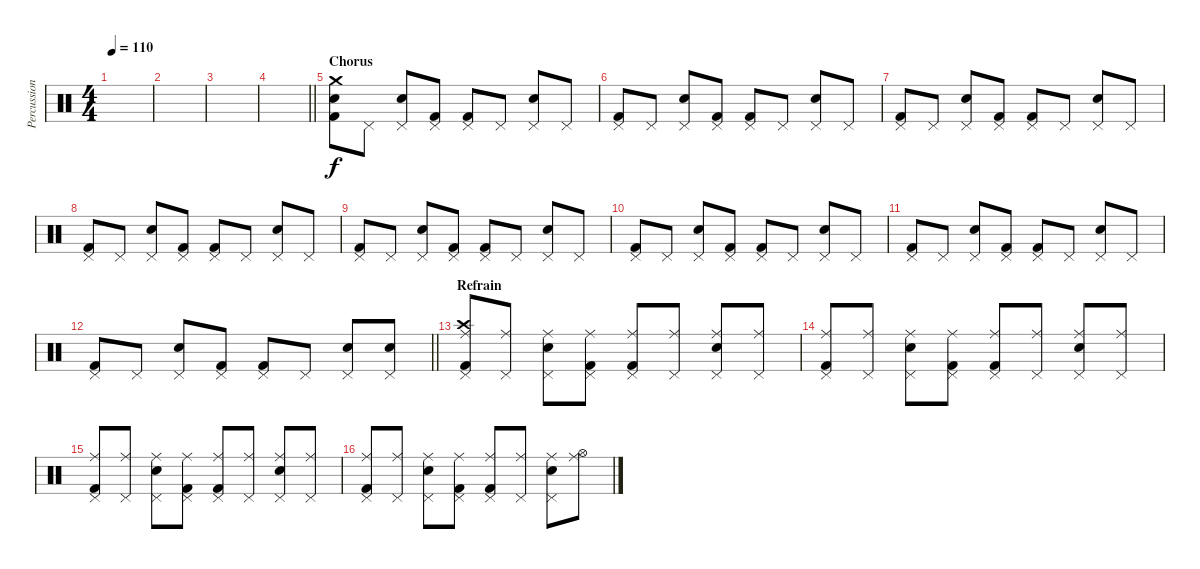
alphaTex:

\track ("Percussions" "Percussion") {instrument percussion}
\staff {score}
\articulation defaults
\ts (4 4)
\tempo 110
\clef neutral
\ks c
|
|
|
\barLineRight lightlight
|
\section ("" "Chorus")
("Crash medium (hit)" "Kick (hit) 2" "Electric Snare (hit)").8 "Pedal Hi-Hat (hit)".8 ("Pedal Hi-Hat (hit)" "Electric Snare (hit)").8 ("Pedal Hi-Hat (hit)" "Kick (hit) 2").8 ("Pedal Hi-Hat (hit)" "Kick (hit) 2").8 "Pedal Hi-Hat (hit)".8 ("Pedal Hi-Hat (hit)" "Electric Snare (hit)").8 "Pedal Hi-Hat (hit)".8 |
("Pedal Hi-Hat (hit)" "Kick (hit) 2").8 "Pedal Hi-Hat (hit)".8 ("Pedal Hi-Hat (hit)" "Electric Snare (hit)").8 ("Pedal Hi-Hat (hit)" "Kick (hit) 2").8 ("Pedal Hi-Hat (hit)" "Kick (hit) 2").8 "Pedal Hi-Hat (hit)".8 ("Pedal Hi-Hat (hit)" "Electric Snare (hit)").8 "Pedal Hi-Hat (hit)".8 |
("Pedal Hi-Hat (hit)" "Kick (hit) 2").8 "Pedal Hi-Hat (hit)".8 ("Pedal Hi-Hat (hit)" "Electric Snare (hit)").8 ("Pedal Hi-Hat (hit)" "Kick (hit) 2").8 ("Pedal Hi-Hat (hit)" "Kick (hit) 2").8 "Pedal Hi-Hat (hit)".8 ("Pedal Hi-Hat (hit)" "Electric Snare (hit)").8 "Pedal Hi-Hat (hit)".8 |
("Pedal Hi-Hat (hit)" "Kick (hit) 2").8 "Pedal Hi-Hat (hit)".8 ("Pedal Hi-Hat (hit)" "Electric Snare (hit)").8 ("Pedal Hi-Hat (hit)" "Kick (hit) 2").8 ("Pedal Hi-Hat (hit)" "Kick (hit) 2").8 "Pedal Hi-Hat (hit)".8 ("Pedal Hi-Hat (hit)" "Electric Snare (hit)").8 "Pedal Hi-Hat (hit)".8 |
("Pedal Hi-Hat (hit)" "Kick (hit) 2").8 "Pedal Hi-Hat (hit)".8 ("Pedal Hi-Hat (hit)" "Electric Snare (hit)").8 ("Pedal Hi-Hat (hit)" "Kick (hit) 2").8 ("Pedal Hi-Hat (hit)" "Kick (hit) 2").8 "Pedal Hi-Hat (hit)".8 ("Pedal Hi-Hat (hit)" "Electric Snare (hit)").8 "Pedal Hi-Hat (hit)".8 |
("Pedal Hi-Hat (hit)" "Kick (hit) 2").8 "Pedal Hi-Hat (hit)".8 ("Pedal Hi-Hat (hit)" "Electric Snare (hit)").8 ("Pedal Hi-Hat (hit)" "Kick (hit) 2").8 ("Pedal Hi-Hat (hit)" "Kick (hit) 2").8 "Pedal Hi-Hat (hit)".8 ("Pedal Hi-Hat (hit)" "Electric Snare (hit)").8 "Pedal Hi-Hat (hit)".8 |
("Pedal Hi-Hat (hit)" "Kick (hit) 2").8 "Pedal Hi-Hat (hit)".8 ("Pedal Hi-Hat (hit)" "Electric Snare (hit)").8 ("Pedal Hi-Hat (hit)" "Kick (hit) 2").8 ("Pedal Hi-Hat (hit)" "Kick (hit) 2").8 "Pedal Hi-Hat (hit)".8 ("Pedal Hi-Hat (hit)" "Electric Snare (hit)").8 "Pedal Hi-Hat (hit)".8 |
\barLineRight lightlight
("Pedal Hi-Hat (hit)" "Kick (hit) 2").8 "Pedal Hi-Hat (hit)".8 ("Pedal Hi-Hat (hit)" "Electric Snare (hit)").8 ("Pedal Hi-Hat (hit)" "Kick (hit) 2").8 ("Pedal Hi-Hat (hit)" "Kick (hit) 2").8 "Pedal Hi-Hat (hit)".8 ("Pedal Hi-Hat (hit)" "Electric Snare (hit)").8 ("Pedal Hi-Hat (hit)" "Electric Snare (hit)").8 |
\section ("" "Refrain")
("Crash high (hit)" "Pedal Hi-Hat (hit)" "Kick (hit) 2" "Ride (middle)").8 ("Pedal Hi-Hat (hit)" "Ride (middle)").8 ("Pedal Hi-Hat (hit)" "Electric Snare (hit)" "Ride (middle)").8 ("Pedal Hi-Hat (hit)" "Kick (hit) 2" "Ride (middle)").8 ("Pedal Hi-Hat (hit)" "Kick (hit) 2" "Ride (middle)").8 ("Pedal Hi-Hat (hit)" "Ride (middle)").8 ("Pedal Hi-Hat (hit)" "Electric Snare (hit)" "Ride (middle)").8 ("Pedal Hi-Hat (hit)" "Ride (middle)").8 |
("Pedal Hi-Hat (hit)" "Kick (hit) 2" "Ride (middle)").8 ("Pedal Hi-Hat (hit)" "Ride (middle)").8 ("Pedal Hi-Hat (hit)" "Electric Snare (hit)" "Ride (middle)").8 ("Pedal Hi-Hat (hit)" "Kick (hit) 2" "Ride (middle)").8 ("Pedal Hi-Hat (hit)" "Kick (hit) 2" "Ride (middle)").8 ("Pedal Hi-Hat (hit)" "Ride (middle)").8 ("Pedal Hi-Hat (hit)" "Electric Snare (hit)" "Ride (middle)").8 ("Pedal Hi-Hat (hit)" "Ride (middle)").8 |
("Pedal Hi-Hat (hit)" "Kick (hit) 2" "Ride (middle)").8 ("Pedal Hi-Hat (hit)" "Ride (middle)").8 ("Pedal Hi-Hat (hit)" "Electric Snare (hit)" "Ride (middle)").8 ("Pedal Hi-Hat (hit)" "Kick (hit) 2" "Ride (middle)").8 ("Pedal Hi-Hat (hit)" "Kick (hit) 2" "Ride (middle)").8 ("Pedal Hi-Hat (hit)" "Ride (middle)").8 ("Pedal Hi-Hat (hit)" "Electric Snare (hit)" "Ride (middle)").8 ("Pedal Hi-Hat (hit)" "Ride (middle)").8 |
("Pedal Hi-Hat (hit)" "Kick (hit) 2" "Ride (middle)").8 ("Pedal Hi-Hat (hit)" "Ride (middle)").8 ("Pedal Hi-Hat (hit)" "Electric Snare (hit)" "Ride (middle)").8 ("Pedal Hi-Hat (hit)" "Kick (hit) 2" "Ride (middle)").8 ("Pedal Hi-Hat (hit)" "Kick (hit) 2" "Ride (middle)").8 ("Pedal Hi-Hat (hit)" "Ride (middle)").8 ("Pedal Hi-Hat (hit)" "Electric Snare (hit)" "Ride (middle)").8 ("Hi-Hat (open)" "Ride (middle)").8
